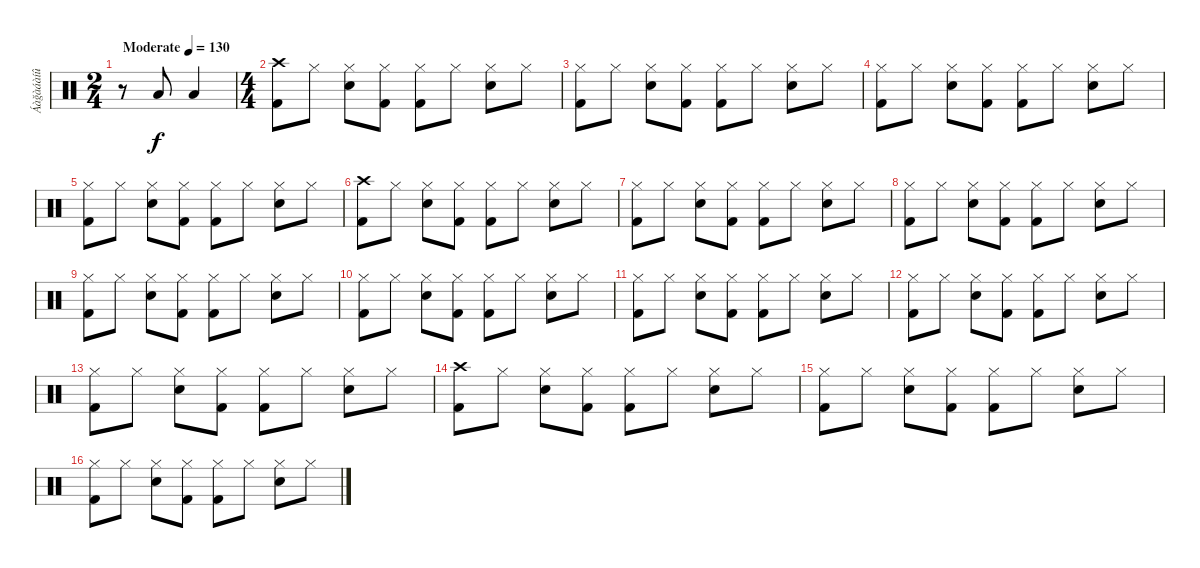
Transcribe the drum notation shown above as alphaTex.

\track ("Áàğàáàíû" "Áàğàáàíû") {instrument percussion}
\staff {score}
\articulation defaults
\ts (2 4)
\tempo (130 "Moderate")
\clef neutral
\ks c
r.8{dy f} "Low Tom (hit)".8 "Low Tom (hit)".4 |
\ts (4 4)
("Crash high (hit)" "Kick (hit) 2").8 "Hi-Hat (closed)".8 ("Hi-Hat (closed)" "Snare (hit) 2").8 ("Hi-Hat (closed)" "Kick (hit) 2").8 ("Hi-Hat (closed)" "Kick (hit) 2").8 "Hi-Hat (closed)".8 ("Hi-Hat (closed)" "Snare (hit) 2").8 "Hi-Hat (closed)".8 |
("Hi-Hat (closed)" "Kick (hit) 2").8 "Hi-Hat (closed)".8 ("Hi-Hat (closed)" "Snare (hit) 2").8 ("Hi-Hat (closed)" "Kick (hit) 2").8 ("Hi-Hat (closed)" "Kick (hit) 2").8 "Hi-Hat (closed)".8 ("Hi-Hat (closed)" "Snare (hit) 2").8 "Hi-Hat (closed)".8 |
("Hi-Hat (closed)" "Kick (hit) 2").8 "Hi-Hat (closed)".8 ("Hi-Hat (closed)" "Snare (hit) 2").8 ("Hi-Hat (closed)" "Kick (hit) 2").8 ("Hi-Hat (closed)" "Kick (hit) 2").8 "Hi-Hat (closed)".8 ("Hi-Hat (closed)" "Snare (hit) 2").8 "Hi-Hat (closed)".8 |
("Hi-Hat (closed)" "Kick (hit) 2").8 "Hi-Hat (closed)".8 ("Hi-Hat (closed)" "Snare (hit) 2").8 ("Hi-Hat (closed)" "Kick (hit) 2").8 ("Hi-Hat (closed)" "Kick (hit) 2").8 "Hi-Hat (closed)".8 ("Hi-Hat (closed)" "Snare (hit) 2").8 "Hi-Hat (closed)".8 |
("Crash high (hit)" "Kick (hit) 2").8 "Hi-Hat (closed)".8 ("Hi-Hat (closed)" "Snare (hit) 2").8 ("Hi-Hat (closed)" "Kick (hit) 2").8 ("Hi-Hat (closed)" "Kick (hit) 2").8 "Hi-Hat (closed)".8 ("Hi-Hat (closed)" "Snare (hit) 2").8 "Hi-Hat (closed)".8 |
("Hi-Hat (closed)" "Kick (hit) 2").8 "Hi-Hat (closed)".8 ("Hi-Hat (closed)" "Snare (hit) 2").8 ("Hi-Hat (closed)" "Kick (hit) 2").8 ("Hi-Hat (closed)" "Kick (hit) 2").8 "Hi-Hat (closed)".8 ("Hi-Hat (closed)" "Snare (hit) 2").8 "Hi-Hat (closed)".8 |
("Hi-Hat (closed)" "Kick (hit) 2").8 "Hi-Hat (closed)".8 ("Hi-Hat (closed)" "Snare (hit) 2").8 ("Hi-Hat (closed)" "Kick (hit) 2").8 ("Hi-Hat (closed)" "Kick (hit) 2").8 "Hi-Hat (closed)".8 ("Hi-Hat (closed)" "Snare (hit) 2").8 "Hi-Hat (closed)".8 |
("Hi-Hat (closed)" "Kick (hit) 2").8 "Hi-Hat (closed)".8 ("Hi-Hat (closed)" "Snare (hit) 2").8 ("Hi-Hat (closed)" "Kick (hit) 2").8 ("Hi-Hat (closed)" "Kick (hit) 2").8 "Hi-Hat (closed)".8 ("Hi-Hat (closed)" "Snare (hit) 2").8 "Hi-Hat (closed)".8 |
("Hi-Hat (closed)" "Kick (hit) 2").8 "Hi-Hat (closed)".8 ("Hi-Hat (closed)" "Snare (hit) 2").8 ("Hi-Hat (closed)" "Kick (hit) 2").8 ("Hi-Hat (closed)" "Kick (hit) 2").8 "Hi-Hat (closed)".8 ("Hi-Hat (closed)" "Snare (hit) 2").8 "Hi-Hat (closed)".8 |
("Hi-Hat (closed)" "Kick (hit) 2").8 "Hi-Hat (closed)".8 ("Hi-Hat (closed)" "Snare (hit) 2").8 ("Hi-Hat (closed)" "Kick (hit) 2").8 ("Hi-Hat (closed)" "Kick (hit) 2").8 "Hi-Hat (closed)".8 ("Hi-Hat (closed)" "Snare (hit) 2").8 "Hi-Hat (closed)".8 |
("Hi-Hat (closed)" "Kick (hit) 2").8 "Hi-Hat (closed)".8 ("Hi-Hat (closed)" "Snare (hit) 2").8 ("Hi-Hat (closed)" "Kick (hit) 2").8 ("Hi-Hat (closed)" "Kick (hit) 2").8 "Hi-Hat (closed)".8 ("Hi-Hat (closed)" "Snare (hit) 2").8 "Hi-Hat (closed)".8 |
("Hi-Hat (closed)" "Kick (hit) 2").8 "Hi-Hat (closed)".8 ("Hi-Hat (closed)" "Snare (hit) 2").8 ("Hi-Hat (closed)" "Kick (hit) 2").8 ("Hi-Hat (closed)" "Kick (hit) 2").8 "Hi-Hat (closed)".8 ("Hi-Hat (closed)" "Snare (hit) 2").8 "Hi-Hat (closed)".8 |
("Crash high (hit)" "Kick (hit) 2").8 "Hi-Hat (closed)".8 ("Hi-Hat (closed)" "Snare (hit) 2").8 ("Hi-Hat (closed)" "Kick (hit) 2").8 ("Hi-Hat (closed)" "Kick (hit) 2").8 "Hi-Hat (closed)".8 ("Hi-Hat (closed)" "Snare (hit) 2").8 "Hi-Hat (closed)".8 |
("Hi-Hat (closed)" "Kick (hit) 2").8 "Hi-Hat (closed)".8 ("Hi-Hat (closed)" "Snare (hit) 2").8 ("Hi-Hat (closed)" "Kick (hit) 2").8 ("Hi-Hat (closed)" "Kick (hit) 2").8 "Hi-Hat (closed)".8 ("Hi-Hat (closed)" "Snare (hit) 2").8 "Hi-Hat (closed)".8 |
("Hi-Hat (closed)" "Kick (hit) 2").8 "Hi-Hat (closed)".8 ("Hi-Hat (closed)" "Snare (hit) 2").8 ("Hi-Hat (closed)" "Kick (hit) 2").8 ("Hi-Hat (closed)" "Kick (hit) 2").8 "Hi-Hat (closed)".8 ("Hi-Hat (closed)" "Snare (hit) 2").8 "Hi-Hat (closed)".8
